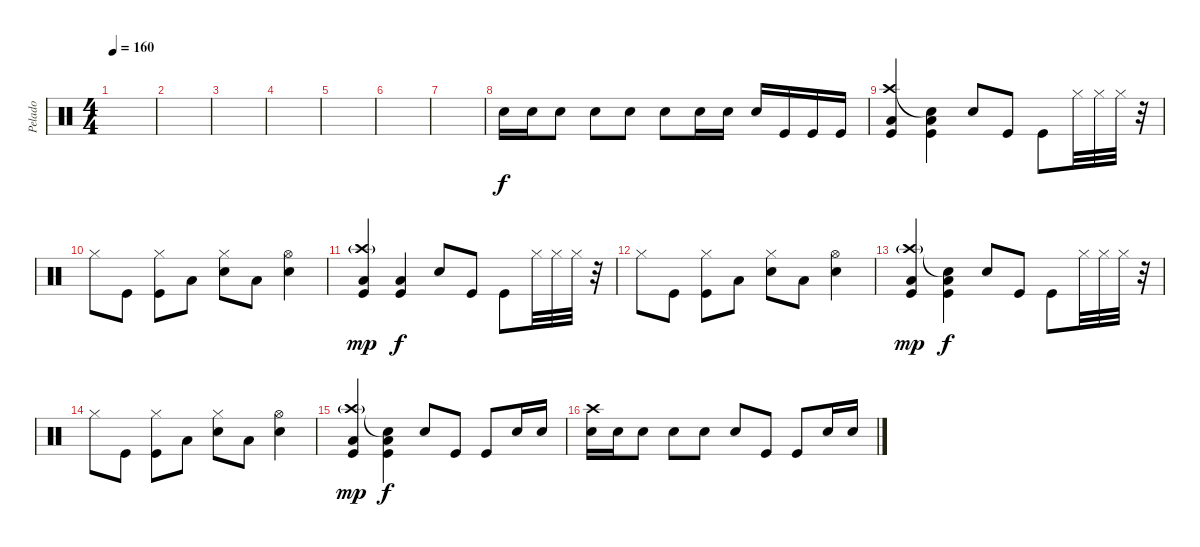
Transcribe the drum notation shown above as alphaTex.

\track ("Pelado" "Pelado") {instrument percussion}
\staff {score}
\articulation defaults
\ts (4 4)
\tempo 160
\clef neutral
\ks c
|
|
|
|
|
|
|
"Snare (hit) 2".16 "Snare (hit) 2".16 "Snare (hit) 2".8 "Snare (hit) 2".8 "Snare (hit) 2".8 "Snare (hit) 2".8 "Snare (hit) 2".16 "Snare (hit) 2".16 "Snare (hit) 2".16 "Kick (hit)".16 "Kick (hit)".16 "Kick (hit)".16 |
("Crash high (hit)" "Kick (hit)" "Low Tom (hit)").4 ("Snare (hit)"{t} "Kick (hit)" "Low Tom (hit)").4 "Snare (hit) 2".8 "Kick (hit)".8 "Kick (hit)".8 "Hi-Hat (closed)".32 "Hi-Hat (closed)".32 "Hi-Hat (closed)".32 r.32 |
"Hi-Hat (closed)".8 "Kick (hit)".8 ("Hi-Hat (closed)" "Kick (hit)").8 "Low Tom (hit)".8 ("Hi-Hat (closed)" "Snare (hit) 2").8 "Low Tom (hit)".8 ("Hi-Hat (open)" "Snare (hit) 2").4 |
("Crash high (hit)"{g} "Kick (hit)" "Low Tom (hit)").4{dy mp} ("Kick (hit)" "Low Tom (hit)").4{dy f} "Snare (hit) 2".8 "Kick (hit)".8 "Kick (hit)".8 "Hi-Hat (closed)".32 "Hi-Hat (closed)".32 "Hi-Hat (closed)".32 r.32 |
"Hi-Hat (closed)".8 "Kick (hit)".8 ("Hi-Hat (closed)" "Kick (hit)").8 "Low Tom (hit)".8 ("Hi-Hat (closed)" "Snare (hit) 2").8 "Low Tom (hit)".8 ("Hi-Hat (open)" "Snare (hit) 2").4 |
("Crash high (hit)"{g} "Kick (hit)" "Low Tom (hit)").4{dy mp} ("Snare (hit)"{t} "Kick (hit)" "Low Tom (hit)").4{dy f} "Snare (hit) 2".8 "Kick (hit)".8 "Kick (hit)".8 "Hi-Hat (closed)".32 "Hi-Hat (closed)".32 "Hi-Hat (closed)".32 r.32 |
"Hi-Hat (closed)".8 "Kick (hit)".8 ("Hi-Hat (closed)" "Kick (hit)").8 "Low Tom (hit)".8 ("Hi-Hat (closed)" "Snare (hit) 2").8 "Low Tom (hit)".8 ("Hi-Hat (open)" "Snare (hit) 2").4 |
("Crash high (hit)"{g} "Kick (hit)" "Low Tom (hit)").4{dy mp} ("Snare (hit)"{t} "Kick (hit)" "Low Tom (hit)").4{dy f} "Snare (hit) 2".8 "Kick (hit)".8 "Kick (hit)".8 "Snare (hit) 2".16 "Snare (hit) 2".16 |
("Crash high (hit)" "Snare (hit) 2").16 "Snare (hit) 2".16 "Snare (hit) 2".8 "Snare (hit) 2".8 "Snare (hit) 2".8 "Snare (hit) 2".8 "Kick (hit)".8 "Kick (hit)".8 "Snare (hit) 2".16 "Snare (hit) 2".16
